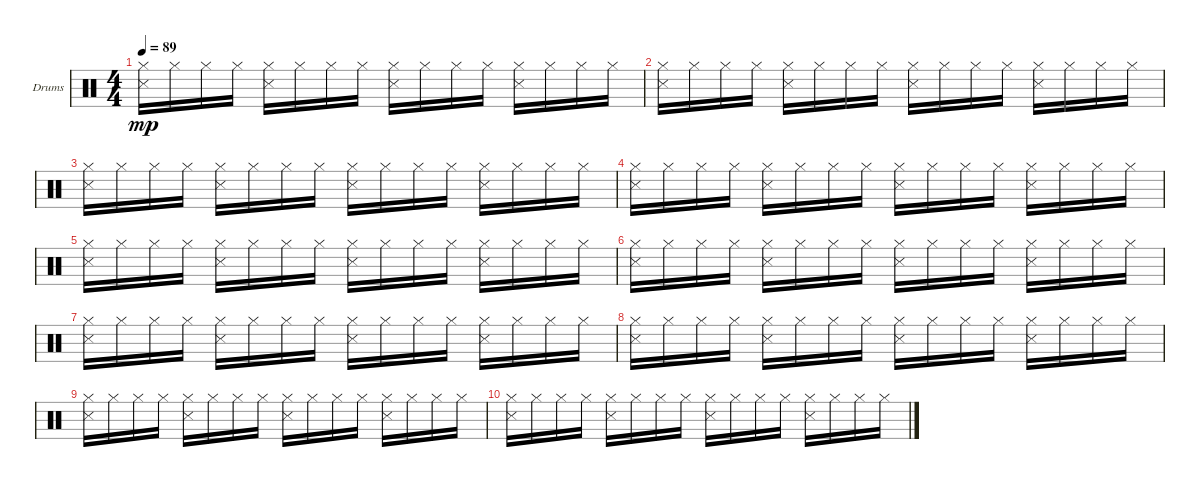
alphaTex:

\bracketExtendMode groupsimilarinstruments
\firstSystemTrackNameOrientation horizontal
\otherSystemsTrackNameOrientation horizontal
\track ("Drumkit" "Drums") {instrument percussion}
\staff {score}
\articulation defaults
\ts (4 4)
\tempo 89
\clef neutral
\ks c
("Hi-Hat (closed)" "Snare (side stick) 3").16{dy mp} "Hi-Hat (closed)".16 "Hi-Hat (closed)".16 "Hi-Hat (closed)".16 ("Hi-Hat (closed)" "Snare (side stick) 3").16 "Hi-Hat (closed)".16 "Hi-Hat (closed)".16 "Hi-Hat (closed)".16 ("Hi-Hat (closed)" "Snare (side stick) 3").16 "Hi-Hat (closed)".16 "Hi-Hat (closed)".16 "Hi-Hat (closed)".16 ("Hi-Hat (closed)" "Snare (side stick) 3").16 "Hi-Hat (closed)".16 "Hi-Hat (closed)".16 "Hi-Hat (closed)".16 |
("Hi-Hat (closed)" "Snare (side stick) 3").16 "Hi-Hat (closed)".16 "Hi-Hat (closed)".16 "Hi-Hat (closed)".16 ("Hi-Hat (closed)" "Snare (side stick) 3").16 "Hi-Hat (closed)".16 "Hi-Hat (closed)".16 "Hi-Hat (closed)".16 ("Hi-Hat (closed)" "Snare (side stick) 3").16 "Hi-Hat (closed)".16 "Hi-Hat (closed)".16 "Hi-Hat (closed)".16 ("Hi-Hat (closed)" "Snare (side stick) 3").16 "Hi-Hat (closed)".16 "Hi-Hat (closed)".16 "Hi-Hat (closed)".16 |
("Hi-Hat (closed)" "Snare (side stick) 3").16 "Hi-Hat (closed)".16 "Hi-Hat (closed)".16 "Hi-Hat (closed)".16 ("Hi-Hat (closed)" "Snare (side stick) 3").16 "Hi-Hat (closed)".16 "Hi-Hat (closed)".16 "Hi-Hat (closed)".16 ("Hi-Hat (closed)" "Snare (side stick) 3").16 "Hi-Hat (closed)".16 "Hi-Hat (closed)".16 "Hi-Hat (closed)".16 ("Hi-Hat (closed)" "Snare (side stick) 3").16 "Hi-Hat (closed)".16 "Hi-Hat (closed)".16 "Hi-Hat (closed)".16 |
("Hi-Hat (closed)" "Snare (side stick) 3").16 "Hi-Hat (closed)".16 "Hi-Hat (closed)".16 "Hi-Hat (closed)".16 ("Hi-Hat (closed)" "Snare (side stick) 3").16 "Hi-Hat (closed)".16 "Hi-Hat (closed)".16 "Hi-Hat (closed)".16 ("Hi-Hat (closed)" "Snare (side stick) 3").16 "Hi-Hat (closed)".16 "Hi-Hat (closed)".16 "Hi-Hat (closed)".16 ("Hi-Hat (closed)" "Snare (side stick) 3").16 "Hi-Hat (closed)".16 "Hi-Hat (closed)".16 "Hi-Hat (closed)".16 |
("Hi-Hat (closed)" "Snare (side stick) 3").16 "Hi-Hat (closed)".16 "Hi-Hat (closed)".16 "Hi-Hat (closed)".16 ("Hi-Hat (closed)" "Snare (side stick) 3").16 "Hi-Hat (closed)".16 "Hi-Hat (closed)".16 "Hi-Hat (closed)".16 ("Hi-Hat (closed)" "Snare (side stick) 3").16 "Hi-Hat (closed)".16 "Hi-Hat (closed)".16 "Hi-Hat (closed)".16 ("Hi-Hat (closed)" "Snare (side stick) 3").16 "Hi-Hat (closed)".16 "Hi-Hat (closed)".16 "Hi-Hat (closed)".16 |
("Hi-Hat (closed)" "Snare (side stick) 3").16 "Hi-Hat (closed)".16 "Hi-Hat (closed)".16 "Hi-Hat (closed)".16 ("Hi-Hat (closed)" "Snare (side stick) 3").16 "Hi-Hat (closed)".16 "Hi-Hat (closed)".16 "Hi-Hat (closed)".16 ("Hi-Hat (closed)" "Snare (side stick) 3").16 "Hi-Hat (closed)".16 "Hi-Hat (closed)".16 "Hi-Hat (closed)".16 ("Hi-Hat (closed)" "Snare (side stick) 3").16 "Hi-Hat (closed)".16 "Hi-Hat (closed)".16 "Hi-Hat (closed)".16 |
("Hi-Hat (closed)" "Snare (side stick) 3").16 "Hi-Hat (closed)".16 "Hi-Hat (closed)".16 "Hi-Hat (closed)".16 ("Hi-Hat (closed)" "Snare (side stick) 3").16 "Hi-Hat (closed)".16 "Hi-Hat (closed)".16 "Hi-Hat (closed)".16 ("Hi-Hat (closed)" "Snare (side stick) 3").16 "Hi-Hat (closed)".16 "Hi-Hat (closed)".16 "Hi-Hat (closed)".16 ("Hi-Hat (closed)" "Snare (side stick) 3").16 "Hi-Hat (closed)".16 "Hi-Hat (closed)".16 "Hi-Hat (closed)".16 |
("Hi-Hat (closed)" "Snare (side stick) 3").16 "Hi-Hat (closed)".16 "Hi-Hat (closed)".16 "Hi-Hat (closed)".16 ("Hi-Hat (closed)" "Snare (side stick) 3").16 "Hi-Hat (closed)".16 "Hi-Hat (closed)".16 "Hi-Hat (closed)".16 ("Hi-Hat (closed)" "Snare (side stick) 3").16 "Hi-Hat (closed)".16 "Hi-Hat (closed)".16 "Hi-Hat (closed)".16 ("Hi-Hat (closed)" "Snare (side stick) 3").16 "Hi-Hat (closed)".16 "Hi-Hat (closed)".16 "Hi-Hat (closed)".16 |
("Hi-Hat (closed)" "Snare (side stick) 3").16 "Hi-Hat (closed)".16 "Hi-Hat (closed)".16 "Hi-Hat (closed)".16 ("Hi-Hat (closed)" "Snare (side stick) 3").16 "Hi-Hat (closed)".16 "Hi-Hat (closed)".16 "Hi-Hat (closed)".16 ("Hi-Hat (closed)" "Snare (side stick) 3").16 "Hi-Hat (closed)".16 "Hi-Hat (closed)".16 "Hi-Hat (closed)".16 ("Hi-Hat (closed)" "Snare (side stick) 3").16 "Hi-Hat (closed)".16 "Hi-Hat (closed)".16 "Hi-Hat (closed)".16 |
("Hi-Hat (closed)" "Snare (side stick) 3").16 "Hi-Hat (closed)".16 "Hi-Hat (closed)".16 "Hi-Hat (closed)".16 ("Hi-Hat (closed)" "Snare (side stick) 3").16 "Hi-Hat (closed)".16 "Hi-Hat (closed)".16 "Hi-Hat (closed)".16 ("Hi-Hat (closed)" "Snare (side stick) 3").16 "Hi-Hat (closed)".16 "Hi-Hat (closed)".16 "Hi-Hat (closed)".16 ("Hi-Hat (closed)" "Snare (side stick) 3").16 "Hi-Hat (closed)".16 "Hi-Hat (closed)".16 "Hi-Hat (closed)".16
